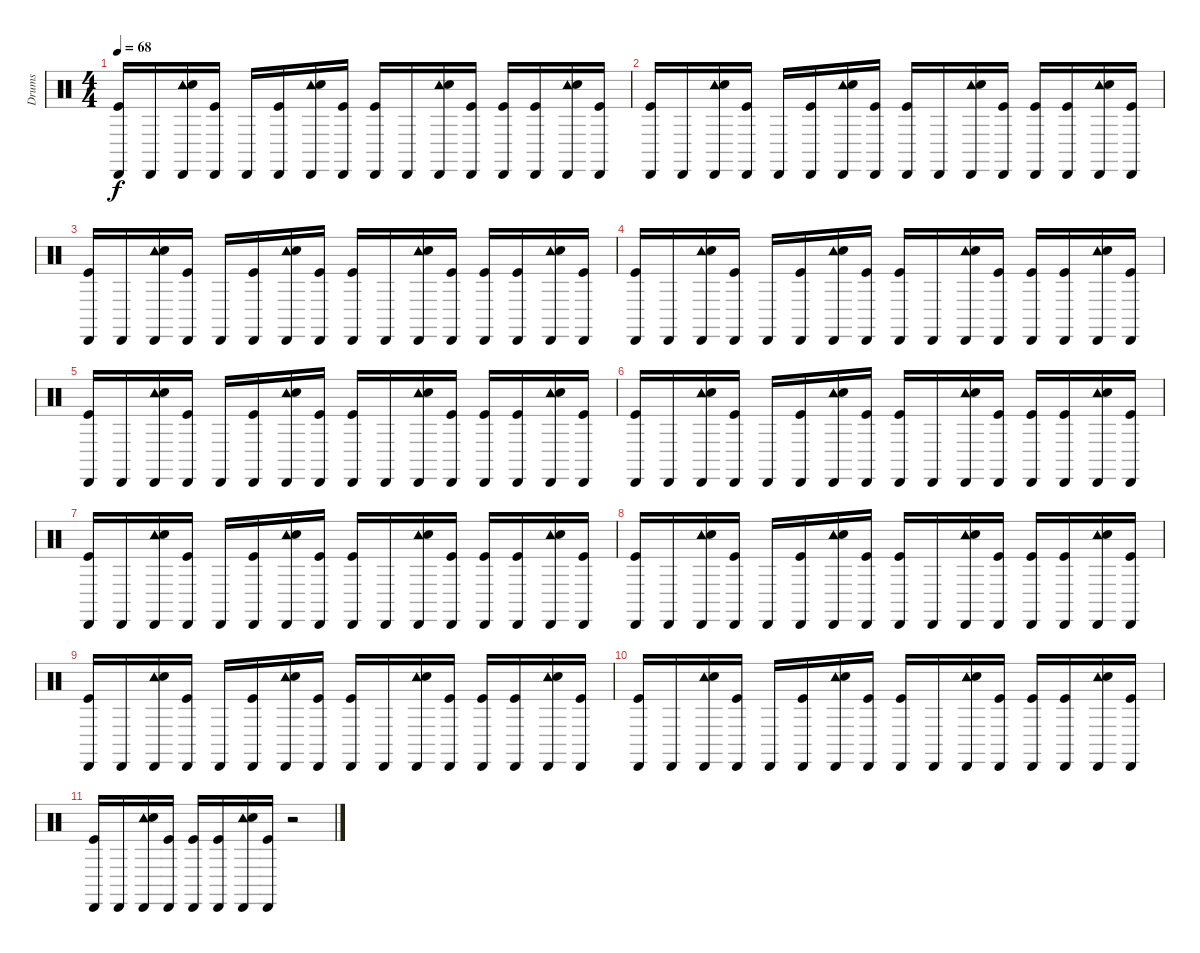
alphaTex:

\track ("Drums" "Drums") {instrument percussion}
\staff {score}
\articulation defaults
\ts (4 4)
\tempo 68
\clef neutral
\ks c
("Cabasa (hit)" "Kick (hit)").16{dy f} "Cabasa (hit)".16 ("Cabasa (hit)" "Tambourine (hit)" "Electric Snare (hit)").16 ("Cabasa (hit)" "Kick (hit)").16 "Cabasa (hit)".16 ("Cabasa (hit)" "Kick (hit)").16 ("Cabasa (hit)" "Tambourine (hit)" "Electric Snare (hit)").16 ("Cabasa (hit)" "Kick (hit)").16 ("Cabasa (hit)" "Kick (hit)").16 "Cabasa (hit)".16 ("Cabasa (hit)" "Tambourine (hit)" "Electric Snare (hit)").16 ("Cabasa (hit)" "Kick (hit)").16 ("Cabasa (hit)" "Kick (hit)").16 ("Cabasa (hit)" "Kick (hit)").16 ("Cabasa (hit)" "Tambourine (hit)" "Electric Snare (hit)").16 ("Cabasa (hit)" "Kick (hit)").16 |
("Cabasa (hit)" "Kick (hit)").16 "Cabasa (hit)".16 ("Cabasa (hit)" "Tambourine (hit)" "Electric Snare (hit)").16 ("Cabasa (hit)" "Kick (hit)").16 "Cabasa (hit)".16 ("Cabasa (hit)" "Kick (hit)").16 ("Cabasa (hit)" "Tambourine (hit)" "Electric Snare (hit)").16 ("Cabasa (hit)" "Kick (hit)").16 ("Cabasa (hit)" "Kick (hit)").16 "Cabasa (hit)".16 ("Cabasa (hit)" "Tambourine (hit)" "Electric Snare (hit)").16 ("Cabasa (hit)" "Kick (hit)").16 ("Cabasa (hit)" "Kick (hit)").16 ("Cabasa (hit)" "Kick (hit)").16 ("Cabasa (hit)" "Tambourine (hit)" "Electric Snare (hit)").16 ("Cabasa (hit)" "Kick (hit)").16 |
("Cabasa (hit)" "Kick (hit)").16 "Cabasa (hit)".16 ("Cabasa (hit)" "Tambourine (hit)" "Electric Snare (hit)").16 ("Cabasa (hit)" "Kick (hit)").16 "Cabasa (hit)".16 ("Cabasa (hit)" "Kick (hit)").16 ("Cabasa (hit)" "Tambourine (hit)" "Electric Snare (hit)").16 ("Cabasa (hit)" "Kick (hit)").16 ("Cabasa (hit)" "Kick (hit)").16 "Cabasa (hit)".16 ("Cabasa (hit)" "Tambourine (hit)" "Electric Snare (hit)").16 ("Cabasa (hit)" "Kick (hit)").16 ("Cabasa (hit)" "Kick (hit)").16 ("Cabasa (hit)" "Kick (hit)").16 ("Cabasa (hit)" "Tambourine (hit)" "Electric Snare (hit)").16 ("Cabasa (hit)" "Kick (hit)").16 |
("Cabasa (hit)" "Kick (hit)").16 "Cabasa (hit)".16 ("Cabasa (hit)" "Tambourine (hit)" "Electric Snare (hit)").16 ("Cabasa (hit)" "Kick (hit)").16 "Cabasa (hit)".16 ("Cabasa (hit)" "Kick (hit)").16 ("Cabasa (hit)" "Tambourine (hit)" "Electric Snare (hit)").16 ("Cabasa (hit)" "Kick (hit)").16 ("Cabasa (hit)" "Kick (hit)").16 "Cabasa (hit)".16 ("Cabasa (hit)" "Tambourine (hit)" "Electric Snare (hit)").16 ("Cabasa (hit)" "Kick (hit)").16 ("Cabasa (hit)" "Kick (hit)").16 ("Cabasa (hit)" "Kick (hit)").16 ("Cabasa (hit)" "Tambourine (hit)" "Electric Snare (hit)").16 ("Cabasa (hit)" "Kick (hit)").16 |
("Cabasa (hit)" "Kick (hit)").16 "Cabasa (hit)".16 ("Cabasa (hit)" "Tambourine (hit)" "Electric Snare (hit)").16 ("Cabasa (hit)" "Kick (hit)").16 "Cabasa (hit)".16 ("Cabasa (hit)" "Kick (hit)").16 ("Cabasa (hit)" "Tambourine (hit)" "Electric Snare (hit)").16 ("Cabasa (hit)" "Kick (hit)").16 ("Cabasa (hit)" "Kick (hit)").16 "Cabasa (hit)".16 ("Cabasa (hit)" "Tambourine (hit)" "Electric Snare (hit)").16 ("Cabasa (hit)" "Kick (hit)").16 ("Cabasa (hit)" "Kick (hit)").16 ("Cabasa (hit)" "Kick (hit)").16 ("Cabasa (hit)" "Tambourine (hit)" "Electric Snare (hit)").16 ("Cabasa (hit)" "Kick (hit)").16 |
("Cabasa (hit)" "Kick (hit)").16 "Cabasa (hit)".16 ("Cabasa (hit)" "Tambourine (hit)" "Electric Snare (hit)").16 ("Cabasa (hit)" "Kick (hit)").16 "Cabasa (hit)".16 ("Cabasa (hit)" "Kick (hit)").16 ("Cabasa (hit)" "Tambourine (hit)" "Electric Snare (hit)").16 ("Cabasa (hit)" "Kick (hit)").16 ("Cabasa (hit)" "Kick (hit)").16 "Cabasa (hit)".16 ("Cabasa (hit)" "Tambourine (hit)" "Electric Snare (hit)").16 ("Cabasa (hit)" "Kick (hit)").16 ("Cabasa (hit)" "Kick (hit)").16 ("Cabasa (hit)" "Kick (hit)").16 ("Cabasa (hit)" "Tambourine (hit)" "Electric Snare (hit)").16 ("Cabasa (hit)" "Kick (hit)").16 |
("Cabasa (hit)" "Kick (hit)").16 "Cabasa (hit)".16 ("Cabasa (hit)" "Tambourine (hit)" "Electric Snare (hit)").16 ("Cabasa (hit)" "Kick (hit)").16 "Cabasa (hit)".16 ("Cabasa (hit)" "Kick (hit)").16 ("Cabasa (hit)" "Tambourine (hit)" "Electric Snare (hit)").16 ("Cabasa (hit)" "Kick (hit)").16 ("Cabasa (hit)" "Kick (hit)").16 "Cabasa (hit)".16 ("Cabasa (hit)" "Tambourine (hit)" "Electric Snare (hit)").16 ("Cabasa (hit)" "Kick (hit)").16 ("Cabasa (hit)" "Kick (hit)").16 ("Cabasa (hit)" "Kick (hit)").16 ("Cabasa (hit)" "Tambourine (hit)" "Electric Snare (hit)").16 ("Cabasa (hit)" "Kick (hit)").16 |
("Cabasa (hit)" "Kick (hit)").16 "Cabasa (hit)".16 ("Cabasa (hit)" "Tambourine (hit)" "Electric Snare (hit)").16 ("Cabasa (hit)" "Kick (hit)").16 "Cabasa (hit)".16 ("Cabasa (hit)" "Kick (hit)").16 ("Cabasa (hit)" "Tambourine (hit)" "Electric Snare (hit)").16 ("Cabasa (hit)" "Kick (hit)").16 ("Cabasa (hit)" "Kick (hit)").16 "Cabasa (hit)".16 ("Cabasa (hit)" "Tambourine (hit)" "Electric Snare (hit)").16 ("Cabasa (hit)" "Kick (hit)").16 ("Cabasa (hit)" "Kick (hit)").16 ("Cabasa (hit)" "Kick (hit)").16 ("Cabasa (hit)" "Tambourine (hit)" "Electric Snare (hit)").16 ("Cabasa (hit)" "Kick (hit)").16 |
("Cabasa (hit)" "Kick (hit)").16 "Cabasa (hit)".16 ("Cabasa (hit)" "Tambourine (hit)" "Electric Snare (hit)").16 ("Cabasa (hit)" "Kick (hit)").16 "Cabasa (hit)".16 ("Cabasa (hit)" "Kick (hit)").16 ("Cabasa (hit)" "Tambourine (hit)" "Electric Snare (hit)").16 ("Cabasa (hit)" "Kick (hit)").16 ("Cabasa (hit)" "Kick (hit)").16 "Cabasa (hit)".16 ("Cabasa (hit)" "Tambourine (hit)" "Electric Snare (hit)").16 ("Cabasa (hit)" "Kick (hit)").16 ("Cabasa (hit)" "Kick (hit)").16 ("Cabasa (hit)" "Kick (hit)").16 ("Cabasa (hit)" "Tambourine (hit)" "Electric Snare (hit)").16 ("Cabasa (hit)" "Kick (hit)").16 |
("Cabasa (hit)" "Kick (hit)").16 "Cabasa (hit)".16 ("Cabasa (hit)" "Tambourine (hit)" "Electric Snare (hit)").16 ("Cabasa (hit)" "Kick (hit)").16 "Cabasa (hit)".16 ("Cabasa (hit)" "Kick (hit)").16 ("Cabasa (hit)" "Tambourine (hit)" "Electric Snare (hit)").16 ("Cabasa (hit)" "Kick (hit)").16 ("Cabasa (hit)" "Kick (hit)").16 "Cabasa (hit)".16 ("Cabasa (hit)" "Tambourine (hit)" "Electric Snare (hit)").16 ("Cabasa (hit)" "Kick (hit)").16 ("Cabasa (hit)" "Kick (hit)").16 ("Cabasa (hit)" "Kick (hit)").16 ("Cabasa (hit)" "Tambourine (hit)" "Electric Snare (hit)").16 ("Cabasa (hit)" "Kick (hit)").16 |
("Cabasa (hit)" "Kick (hit)").16 "Cabasa (hit)".16 ("Cabasa (hit)" "Tambourine (hit)" "Electric Snare (hit)").16 ("Cabasa (hit)" "Kick (hit)").16 ("Cabasa (hit)" "Kick (hit)").16 ("Cabasa (hit)" "Kick (hit)").16 ("Cabasa (hit)" "Tambourine (hit)" "Electric Snare (hit)").16 ("Cabasa (hit)" "Kick (hit)").16 r.2
